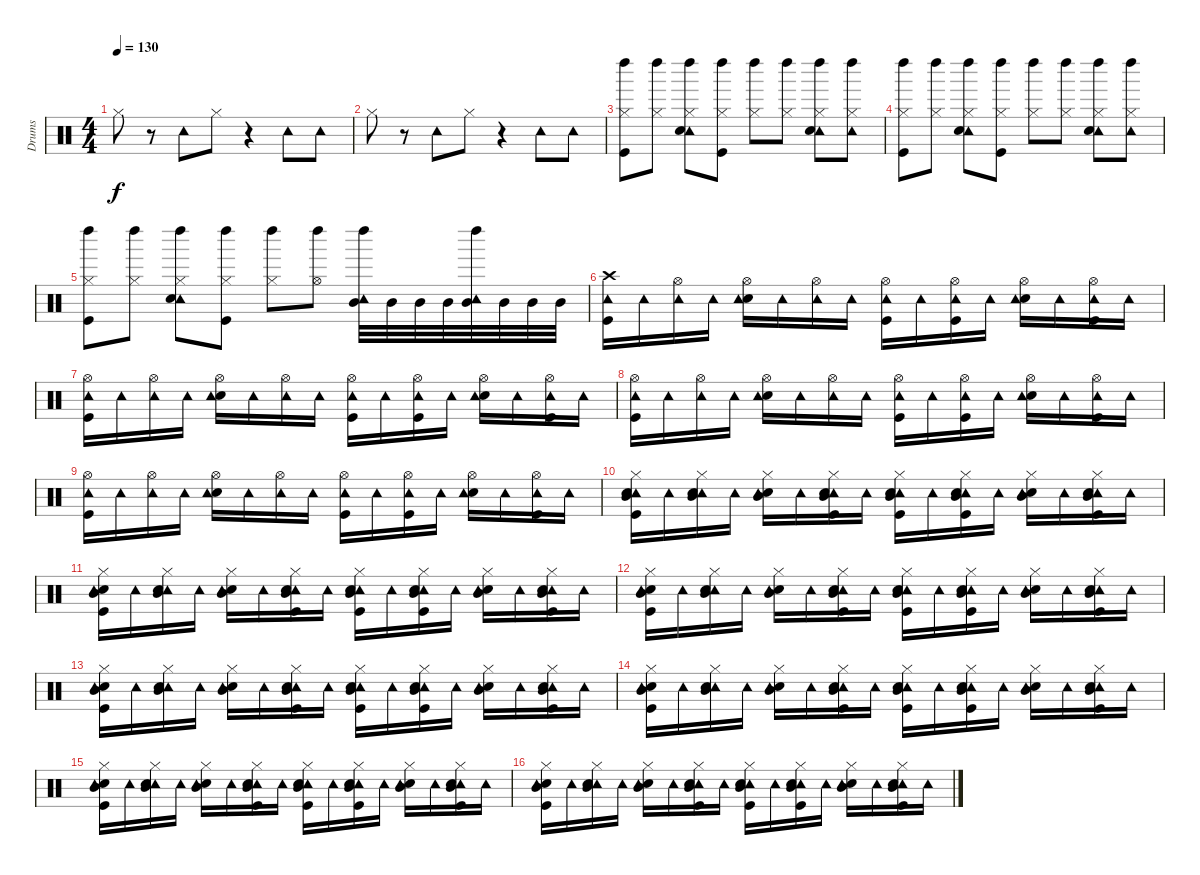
\track ("Drums" "Drums") {instrument percussion}
\staff {score}
\articulation defaults
\ts (4 4)
\tempo 130
\clef neutral
\ks c "Hi-Hat (closed)".8{dy f}
r.8 "Tambourine (hit)".8 "Hi-Hat (closed)".8 r.4 "Tambourine (hit)".8 "Tambourine (hit)".8 |
"Hi-Hat (closed)".8 r.8 "Tambourine (hit)".8 "Hi-Hat (closed)".8 r.4 "Tambourine (hit)".8 "Tambourine (hit)".8 |
("Hi-Hat (closed)" "Kick (hit)" "Left Maraca (hit)").8 ("Hi-Hat (closed)" "Left Maraca (hit)").8 ("Tambourine (hit)" "Hi-Hat (closed)" "Snare (hit) 2" "Left Maraca (hit)").8 ("Hi-Hat (closed)" "Kick (hit)" "Left Maraca (hit)").8 ("Hi-Hat (closed)" "Left Maraca (hit)").8 ("Hi-Hat (closed)" "Left Maraca (hit)").8 ("Tambourine (hit)" "Hi-Hat (closed)" "Snare (hit) 2" "Left Maraca (hit)").8 ("Tambourine (hit)" "Hi-Hat (closed)" "Left Maraca (hit)").8 |
("Left Maraca (hit)" "Kick (hit)" "Hi-Hat (closed)").8 ("Hi-Hat (closed)" "Left Maraca (hit)").8 ("Tambourine (hit)" "Hi-Hat (closed)" "Snare (hit) 2" "Left Maraca (hit)").8 ("Hi-Hat (closed)" "Kick (hit)" "Left Maraca (hit)").8 ("Hi-Hat (closed)" "Left Maraca (hit)").8 ("Hi-Hat (closed)" "Left Maraca (hit)").8 ("Tambourine (hit)" "Hi-Hat (closed)" "Snare (hit) 2" "Left Maraca (hit)").8 ("Tambourine (hit)" "Hi-Hat (closed)" "Left Maraca (hit)").8 |
("Left Maraca (hit)" "Kick (hit)" "Hi-Hat (closed)").8 ("Hi-Hat (closed)" "Left Maraca (hit)").8 ("Tambourine (hit)" "Hi-Hat (closed)" "Snare (hit) 2" "Left Maraca (hit)").8 ("Hi-Hat (closed)" "Kick (hit)" "Left Maraca (hit)").8 ("Left Maraca (hit)" "Hi-Hat (closed)").8 ("Left Maraca (hit)" "Hi-Hat (open)").8 ("Tambourine (hit)" "Left Maraca (hit)" "Mid Tom (hit)").32 "Mid Tom (hit)".32 "Mid Tom (hit)".32 "Mid Tom (hit)".32 ("Tambourine (hit)" "Left Maraca (hit)" "Mid Tom (hit)").32 "Mid Tom (hit)".32 "Mid Tom (hit)".32 "Mid Tom (hit)".32 |
("Crash high (hit)" "Kick (hit)" "Tambourine (hit)").16 "Tambourine (hit)".16 ("Hi-Hat (open)" "Tambourine (hit)").16 "Tambourine (hit)".16 ("Hi-Hat (open)" "Snare (hit) 2" "Tambourine (hit)").16 "Tambourine (hit)".16 ("Hi-Hat (open)" "Tambourine (hit)").16 "Tambourine (hit)".16 ("Hi-Hat (open)" "Kick (hit)" "Tambourine (hit)").16 "Tambourine (hit)".16 ("Hi-Hat (open)" "Kick (hit)" "Tambourine (hit)").16 "Tambourine (hit)".16 ("Hi-Hat (open)" "Snare (hit) 2" "Tambourine (hit)").16 "Tambourine (hit)".16 ("Hi-Hat (open)" "Kick (hit)" "Tambourine (hit)").16 "Tambourine (hit)".16 |
("Tambourine (hit)" "Kick (hit)" "Hi-Hat (open)").16 "Tambourine (hit)".16 ("Hi-Hat (open)" "Tambourine (hit)").16 "Tambourine (hit)".16 ("Hi-Hat (open)" "Snare (hit) 2" "Tambourine (hit)").16 "Tambourine (hit)".16 ("Hi-Hat (open)" "Tambourine (hit)").16 "Tambourine (hit)".16 ("Hi-Hat (open)" "Kick (hit)" "Tambourine (hit)").16 "Tambourine (hit)".16 ("Hi-Hat (open)" "Kick (hit)" "Tambourine (hit)").16 "Tambourine (hit)".16 ("Hi-Hat (open)" "Snare (hit) 2" "Tambourine (hit)").16 "Tambourine (hit)".16 ("Hi-Hat (open)" "Kick (hit)" "Tambourine (hit)").16 "Tambourine (hit)".16 |
("Hi-Hat (open)" "Kick (hit)" "Tambourine (hit)").16 "Tambourine (hit)".16 ("Hi-Hat (open)" "Tambourine (hit)").16 "Tambourine (hit)".16 ("Hi-Hat (open)" "Snare (hit) 2" "Tambourine (hit)").16 "Tambourine (hit)".16 ("Hi-Hat (open)" "Tambourine (hit)").16 "Tambourine (hit)".16 ("Hi-Hat (open)" "Kick (hit)" "Tambourine (hit)").16 "Tambourine (hit)".16 ("Hi-Hat (open)" "Kick (hit)" "Tambourine (hit)").16 "Tambourine (hit)".16 ("Hi-Hat (open)" "Snare (hit) 2" "Tambourine (hit)").16 "Tambourine (hit)".16 ("Hi-Hat (open)" "Kick (hit)" "Tambourine (hit)").16 "Tambourine (hit)".16 |
("Hi-Hat (open)" "Kick (hit)" "Tambourine (hit)").16 "Tambourine (hit)".16 ("Hi-Hat (open)" "Tambourine (hit)").16 "Tambourine (hit)".16 ("Hi-Hat (open)" "Snare (hit) 2" "Tambourine (hit)").16 "Tambourine (hit)".16 ("Hi-Hat (open)" "Tambourine (hit)").16 "Tambourine (hit)".16 ("Hi-Hat (open)" "Kick (hit)" "Tambourine (hit)").16 "Tambourine (hit)".16 ("Hi-Hat (open)" "Kick (hit)" "Tambourine (hit)").16 "Tambourine (hit)".16 ("Hi-Hat (open)" "Snare (hit) 2" "Tambourine (hit)").16 "Tambourine (hit)".16 ("Hi-Hat (open)" "Kick (hit)" "Tambourine (hit)").16 "Tambourine (hit)".16 |
("Hi-Hat (closed)" "Kick (hit)" "Tambourine (hit)" "Snare (hit) 2" "Mid Tom (hit)").16 "Tambourine (hit)".16 ("Hi-Hat (closed)" "Tambourine (hit)" "Snare (hit) 2" "Mid Tom (hit)").16 "Tambourine (hit)".16 ("Hi-Hat (closed)" "Snare (hit) 2" "Tambourine (hit)" "Mid Tom (hit)").16 "Tambourine (hit)".16 ("Hi-Hat (closed)" "Kick (hit)" "Tambourine (hit)" "Snare (hit) 2" "Mid Tom (hit)").16 "Tambourine (hit)".16 ("Hi-Hat (closed)" "Kick (hit)" "Tambourine (hit)" "Snare (hit) 2" "Mid Tom (hit)").16 "Tambourine (hit)".16 ("Hi-Hat (closed)" "Kick (hit)" "Tambourine (hit)" "Snare (hit) 2" "Mid Tom (hit)").16 "Tambourine (hit)".16 ("Hi-Hat (closed)" "Snare (hit) 2" "Tambourine (hit)" "Mid Tom (hit)").16 "Tambourine (hit)".16 ("Hi-Hat (closed)" "Kick (hit)" "Tambourine (hit)" "Snare (hit) 2" "Mid Tom (hit)").16 "Tambourine (hit)".16 |
("Mid Tom (hit)" "Snare (hit) 2" "Tambourine (hit)" "Kick (hit)" "Hi-Hat (closed)").16 "Tambourine (hit)".16 ("Hi-Hat (closed)" "Tambourine (hit)" "Snare (hit) 2" "Mid Tom (hit)").16 "Tambourine (hit)".16 ("Hi-Hat (closed)" "Snare (hit) 2" "Tambourine (hit)" "Mid Tom (hit)").16 "Tambourine (hit)".16 ("Hi-Hat (closed)" "Kick (hit)" "Tambourine (hit)" "Snare (hit) 2" "Mid Tom (hit)").16 "Tambourine (hit)".16 ("Hi-Hat (closed)" "Kick (hit)" "Tambourine (hit)" "Snare (hit) 2" "Mid Tom (hit)").16 "Tambourine (hit)".16 ("Hi-Hat (closed)" "Kick (hit)" "Tambourine (hit)" "Snare (hit) 2" "Mid Tom (hit)").16 "Tambourine (hit)".16 ("Hi-Hat (closed)" "Snare (hit) 2" "Tambourine (hit)" "Mid Tom (hit)").16 "Tambourine (hit)".16 ("Hi-Hat (closed)" "Kick (hit)" "Tambourine (hit)" "Snare (hit) 2" "Mid Tom (hit)").16 "Tambourine (hit)".16 |
("Mid Tom (hit)" "Snare (hit) 2" "Tambourine (hit)" "Kick (hit)" "Hi-Hat (closed)").16 "Tambourine (hit)".16 ("Hi-Hat (closed)" "Tambourine (hit)" "Snare (hit) 2" "Mid Tom (hit)").16 "Tambourine (hit)".16 ("Hi-Hat (closed)" "Snare (hit) 2" "Tambourine (hit)" "Mid Tom (hit)").16 "Tambourine (hit)".16 ("Hi-Hat (closed)" "Kick (hit)" "Tambourine (hit)" "Snare (hit) 2" "Mid Tom (hit)").16 "Tambourine (hit)".16 ("Hi-Hat (closed)" "Kick (hit)" "Tambourine (hit)" "Snare (hit) 2" "Mid Tom (hit)").16 "Tambourine (hit)".16 ("Hi-Hat (closed)" "Kick (hit)" "Tambourine (hit)" "Snare (hit) 2" "Mid Tom (hit)").16 "Tambourine (hit)".16 ("Hi-Hat (closed)" "Snare (hit) 2" "Tambourine (hit)" "Mid Tom (hit)").16 "Tambourine (hit)".16 ("Hi-Hat (closed)" "Kick (hit)" "Tambourine (hit)" "Snare (hit) 2" "Mid Tom (hit)").16 "Tambourine (hit)".16 |
("Mid Tom (hit)" "Snare (hit) 2" "Tambourine (hit)" "Kick (hit)" "Hi-Hat (closed)").16 "Tambourine (hit)".16 ("Hi-Hat (closed)" "Tambourine (hit)" "Snare (hit) 2" "Mid Tom (hit)").16 "Tambourine (hit)".16 ("Hi-Hat (closed)" "Snare (hit) 2" "Tambourine (hit)" "Mid Tom (hit)").16 "Tambourine (hit)".16 ("Hi-Hat (closed)" "Kick (hit)" "Tambourine (hit)" "Snare (hit) 2" "Mid Tom (hit)").16 "Tambourine (hit)".16 ("Hi-Hat (closed)" "Kick (hit)" "Tambourine (hit)" "Snare (hit) 2" "Mid Tom (hit)").16 "Tambourine (hit)".16 ("Hi-Hat (closed)" "Kick (hit)" "Tambourine (hit)" "Snare (hit) 2" "Mid Tom (hit)").16 "Tambourine (hit)".16 ("Hi-Hat (closed)" "Snare (hit) 2" "Tambourine (hit)" "Mid Tom (hit)").16 "Tambourine (hit)".16 ("Hi-Hat (closed)" "Kick (hit)" "Tambourine (hit)" "Snare (hit) 2" "Mid Tom (hit)").16 "Tambourine (hit)".16 |
("Mid Tom (hit)" "Snare (hit) 2" "Tambourine (hit)" "Kick (hit)" "Hi-Hat (closed)").16 "Tambourine (hit)".16 ("Hi-Hat (closed)" "Tambourine (hit)" "Snare (hit) 2" "Mid Tom (hit)").16 "Tambourine (hit)".16 ("Hi-Hat (closed)" "Snare (hit) 2" "Tambourine (hit)" "Mid Tom (hit)").16 "Tambourine (hit)".16 ("Hi-Hat (closed)" "Kick (hit)" "Tambourine (hit)" "Snare (hit) 2" "Mid Tom (hit)").16 "Tambourine (hit)".16 ("Hi-Hat (closed)" "Kick (hit)" "Tambourine (hit)" "Snare (hit) 2" "Mid Tom (hit)").16 "Tambourine (hit)".16 ("Hi-Hat (closed)" "Kick (hit)" "Tambourine (hit)" "Snare (hit) 2" "Mid Tom (hit)").16 "Tambourine (hit)".16 ("Hi-Hat (closed)" "Snare (hit) 2" "Tambourine (hit)" "Mid Tom (hit)").16 "Tambourine (hit)".16 ("Hi-Hat (closed)" "Kick (hit)" "Tambourine (hit)" "Snare (hit) 2" "Mid Tom (hit)").16 "Tambourine (hit)".16 |
("Mid Tom (hit)" "Snare (hit) 2" "Tambourine (hit)" "Kick (hit)" "Hi-Hat (closed)").16 "Tambourine (hit)".16 ("Hi-Hat (closed)" "Tambourine (hit)" "Snare (hit) 2" "Mid Tom (hit)").16 "Tambourine (hit)".16 ("Hi-Hat (closed)" "Snare (hit) 2" "Tambourine (hit)" "Mid Tom (hit)").16 "Tambourine (hit)".16 ("Hi-Hat (closed)" "Kick (hit)" "Tambourine (hit)" "Snare (hit) 2" "Mid Tom (hit)").16 "Tambourine (hit)".16 ("Hi-Hat (closed)" "Kick (hit)" "Tambourine (hit)" "Snare (hit) 2" "Mid Tom (hit)").16 "Tambourine (hit)".16 ("Hi-Hat (closed)" "Kick (hit)" "Tambourine (hit)" "Snare (hit) 2" "Mid Tom (hit)").16 "Tambourine (hit)".16 ("Hi-Hat (closed)" "Snare (hit) 2" "Tambourine (hit)" "Mid Tom (hit)").16 "Tambourine (hit)".16 ("Hi-Hat (closed)" "Kick (hit)" "Tambourine (hit)" "Snare (hit) 2" "Mid Tom (hit)").16 "Tambourine (hit)".16 |
("Mid Tom (hit)" "Snare (hit) 2" "Tambourine (hit)" "Kick (hit)" "Hi-Hat (closed)").16 "Tambourine (hit)".16 ("Hi-Hat (closed)" "Tambourine (hit)" "Snare (hit) 2" "Mid Tom (hit)").16 "Tambourine (hit)".16 ("Hi-Hat (closed)" "Snare (hit) 2" "Tambourine (hit)" "Mid Tom (hit)").16 "Tambourine (hit)".16 ("Hi-Hat (closed)" "Kick (hit)" "Tambourine (hit)" "Snare (hit) 2" "Mid Tom (hit)").16 "Tambourine (hit)".16 ("Hi-Hat (closed)" "Kick (hit)" "Tambourine (hit)" "Snare (hit) 2" "Mid Tom (hit)").16 "Tambourine (hit)".16 ("Hi-Hat (closed)" "Kick (hit)" "Tambourine (hit)" "Snare (hit) 2" "Mid Tom (hit)").16 "Tambourine (hit)".16 ("Hi-Hat (closed)" "Snare (hit) 2" "Tambourine (hit)" "Mid Tom (hit)").16 "Tambourine (hit)".16 ("Hi-Hat (closed)" "Kick (hit)" "Tambourine (hit)" "Snare (hit) 2" "Mid Tom (hit)").16 "Tambourine (hit)".16
